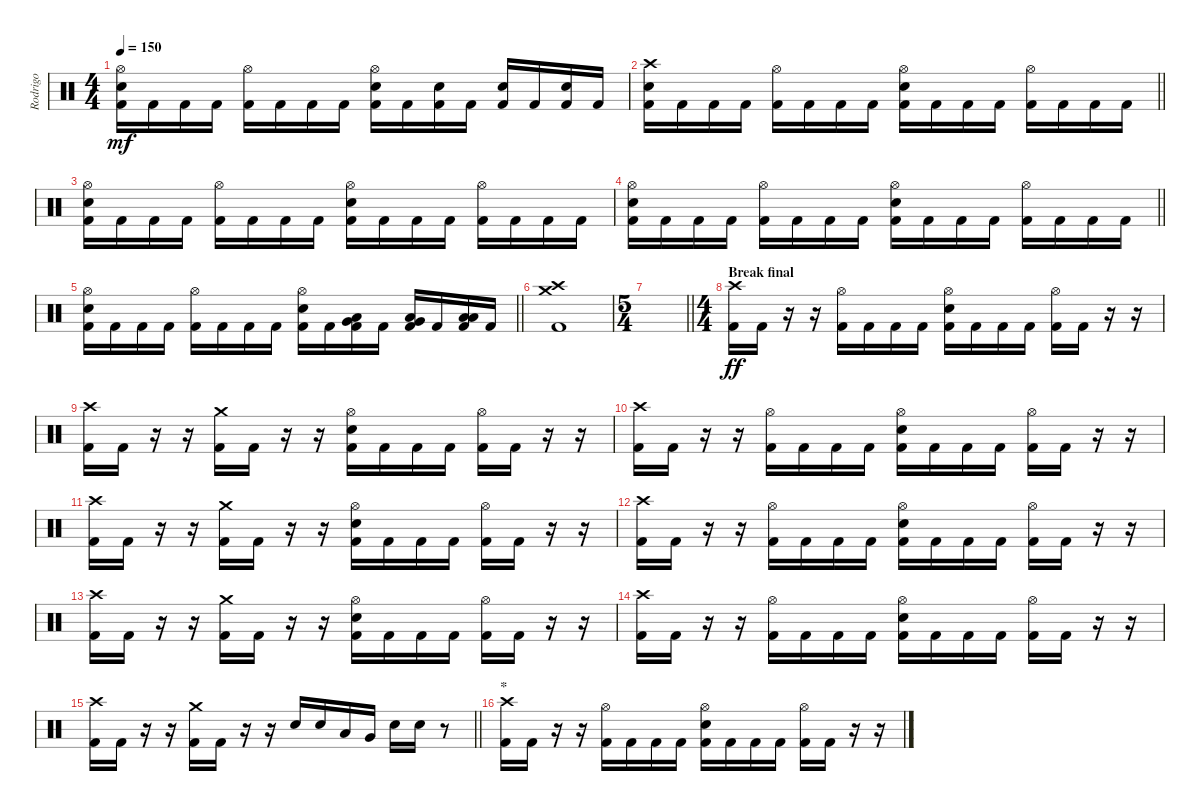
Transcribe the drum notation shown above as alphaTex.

\track ("Rodrigo" "Rodrigo") {instrument percussion}
\staff {score}
\articulation defaults
\ts (4 4)
\tempo 150
\clef neutral
\ks c
("Hi-Hat (open)" "Electric Snare (hit)" "Kick (hit) 2").16{dy mf} "Kick (hit) 2".16 "Kick (hit) 2".16 "Kick (hit) 2".16 ("Hi-Hat (open)" "Kick (hit) 2").16 "Kick (hit) 2".16 "Kick (hit) 2".16 "Kick (hit) 2".16 ("Hi-Hat (open)" "Electric Snare (hit)" "Kick (hit) 2").16 "Kick (hit) 2".16 ("Electric Snare (hit)" "Kick (hit) 2").16 "Kick (hit) 2".16 ("Electric Snare (hit)" "Kick (hit) 2").16 "Kick (hit) 2".16 ("Electric Snare (hit)" "Kick (hit) 2").16 "Kick (hit) 2".16 |
\barLineRight lightlight
("Crash high (hit)" "Electric Snare (hit)" "Kick (hit) 2").16 "Kick (hit) 2".16 "Kick (hit) 2".16 "Kick (hit) 2".16 ("Hi-Hat (open)" "Kick (hit) 2").16 "Kick (hit) 2".16 "Kick (hit) 2".16 "Kick (hit) 2".16 ("Hi-Hat (open)" "Electric Snare (hit)" "Kick (hit) 2").16 "Kick (hit) 2".16 "Kick (hit) 2".16 "Kick (hit) 2".16 ("Hi-Hat (open)" "Kick (hit) 2").16 "Kick (hit) 2".16 "Kick (hit) 2".16 "Kick (hit) 2".16 |
("Hi-Hat (open)" "Electric Snare (hit)" "Kick (hit) 2").16 "Kick (hit) 2".16 "Kick (hit) 2".16 "Kick (hit) 2".16 ("Hi-Hat (open)" "Kick (hit) 2").16 "Kick (hit) 2".16 "Kick (hit) 2".16 "Kick (hit) 2".16 ("Hi-Hat (open)" "Electric Snare (hit)" "Kick (hit) 2").16 "Kick (hit) 2".16 "Kick (hit) 2".16 "Kick (hit) 2".16 ("Hi-Hat (open)" "Kick (hit) 2").16 "Kick (hit) 2".16 "Kick (hit) 2".16 "Kick (hit) 2".16 |
\barLineRight lightlight
("Hi-Hat (open)" "Electric Snare (hit)" "Kick (hit) 2").16 "Kick (hit) 2".16 "Kick (hit) 2".16 "Kick (hit) 2".16 ("Hi-Hat (open)" "Kick (hit) 2").16 "Kick (hit) 2".16 "Kick (hit) 2".16 "Kick (hit) 2".16 ("Hi-Hat (open)" "Electric Snare (hit)" "Kick (hit) 2").16 "Kick (hit) 2".16 "Kick (hit) 2".16 "Kick (hit) 2".16 ("Hi-Hat (open)" "Kick (hit) 2").16 "Kick (hit) 2".16 "Kick (hit) 2".16 "Kick (hit) 2".16 |
\barLineRight lightlight
("Hi-Hat (open)" "Electric Snare (hit)" "Kick (hit) 2").16 "Kick (hit) 2".16 "Kick (hit) 2".16 "Kick (hit) 2".16 ("Hi-Hat (open)" "Kick (hit) 2").16 "Kick (hit) 2".16 "Kick (hit) 2".16 "Kick (hit) 2".16 ("Hi-Hat (open)" "Electric Snare (hit)" "Kick (hit) 2").16 "Kick (hit) 2".16 ("Low Tom (hit)" "Very Low Tom (hit)" "Kick (hit) 2").16 "Kick (hit) 2".16 ("Very Low Tom (hit)" "Low Floor Tom (hit)" "Kick (hit) 2").16 "Kick (hit) 2".16 ("Low Floor Tom (hit)" "Low Floor Tom (hit)" "Kick (hit) 2").16 "Kick (hit) 2".16 |
("Crash high (hit)" "Crash medium (hit)" "Kick (hit) 2").1 |
\ts (5 4)
\barLineRight lightlight
|
\ts (4 4)
\section ("" "Break final")
("Crash high (hit)" "Kick (hit) 2").16{dy ff} "Kick (hit) 2".16 r.16 r.16 ("Hi-Hat (open)" "Kick (hit) 2").16 "Kick (hit) 2".16 "Kick (hit) 2".16 "Kick (hit) 2".16 ("Hi-Hat (open)" "Electric Snare (hit)" "Kick (hit) 2").16 "Kick (hit) 2".16 "Kick (hit) 2".16 "Kick (hit) 2".16 ("Hi-Hat (open)" "Kick (hit) 2").16 "Kick (hit) 2".16 r.16 r.16 |
("Crash high (hit)" "Kick (hit) 2").16 "Kick (hit) 2".16 r.16 r.16 ("Crash medium (hit)" "Kick (hit) 2").16 "Kick (hit) 2".16 r.16 r.16 ("Hi-Hat (open)" "Electric Snare (hit)" "Kick (hit) 2").16 "Kick (hit) 2".16 "Kick (hit) 2".16 "Kick (hit) 2".16 ("Hi-Hat (open)" "Kick (hit) 2").16 "Kick (hit) 2".16 r.16 r.16 |
("Crash high (hit)" "Kick (hit) 2").16 "Kick (hit) 2".16 r.16 r.16 ("Hi-Hat (open)" "Kick (hit) 2").16 "Kick (hit) 2".16 "Kick (hit) 2".16 "Kick (hit) 2".16 ("Hi-Hat (open)" "Electric Snare (hit)" "Kick (hit) 2").16 "Kick (hit) 2".16 "Kick (hit) 2".16 "Kick (hit) 2".16 ("Hi-Hat (open)" "Kick (hit) 2").16 "Kick (hit) 2".16 r.16 r.16 |
("Crash high (hit)" "Kick (hit) 2").16 "Kick (hit) 2".16 r.16 r.16 ("Crash medium (hit)" "Kick (hit) 2").16 "Kick (hit) 2".16 r.16 r.16 ("Hi-Hat (open)" "Electric Snare (hit)" "Kick (hit) 2").16 "Kick (hit) 2".16 "Kick (hit) 2".16 "Kick (hit) 2".16 ("Hi-Hat (open)" "Kick (hit) 2").16 "Kick (hit) 2".16 r.16 r.16 |
("Crash high (hit)" "Kick (hit) 2").16 "Kick (hit) 2".16 r.16 r.16 ("Hi-Hat (open)" "Kick (hit) 2").16 "Kick (hit) 2".16 "Kick (hit) 2".16 "Kick (hit) 2".16 ("Hi-Hat (open)" "Electric Snare (hit)" "Kick (hit) 2").16 "Kick (hit) 2".16 "Kick (hit) 2".16 "Kick (hit) 2".16 ("Hi-Hat (open)" "Kick (hit) 2").16 "Kick (hit) 2".16 r.16 r.16 |
("Crash high (hit)" "Kick (hit) 2").16 "Kick (hit) 2".16 r.16 r.16 ("Crash medium (hit)" "Kick (hit) 2").16 "Kick (hit) 2".16 r.16 r.16 ("Hi-Hat (open)" "Electric Snare (hit)" "Kick (hit) 2").16 "Kick (hit) 2".16 "Kick (hit) 2".16 "Kick (hit) 2".16 ("Hi-Hat (open)" "Kick (hit) 2").16 "Kick (hit) 2".16 r.16 r.16 |
("Crash high (hit)" "Kick (hit) 2").16 "Kick (hit) 2".16 r.16 r.16 ("Hi-Hat (open)" "Kick (hit) 2").16 "Kick (hit) 2".16 "Kick (hit) 2".16 "Kick (hit) 2".16 ("Hi-Hat (open)" "Electric Snare (hit)" "Kick (hit) 2").16 "Kick (hit) 2".16 "Kick (hit) 2".16 "Kick (hit) 2".16 ("Hi-Hat (open)" "Kick (hit) 2").16 "Kick (hit) 2".16 r.16 r.16 |
\barLineRight lightlight
("Crash high (hit)" "Kick (hit) 2").16 "Kick (hit) 2".16 r.16 r.16 ("Crash medium (hit)" "Kick (hit) 2").16 "Kick (hit) 2".16 r.16 r.16 "Electric Snare (hit)".16 "Electric Snare (hit)".16 "Low Tom (hit)".16 "Very Low Tom (hit)".16 "Electric Snare (hit)".16 "Electric Snare (hit)".16 r.8 |
\section ("" "*")
("Crash high (hit)" "Kick (hit) 2").16 "Kick (hit) 2".16 r.16 r.16 ("Hi-Hat (open)" "Kick (hit) 2").16 "Kick (hit) 2".16 "Kick (hit) 2".16 "Kick (hit) 2".16 ("Hi-Hat (open)" "Electric Snare (hit)" "Kick (hit) 2").16 "Kick (hit) 2".16 "Kick (hit) 2".16 "Kick (hit) 2".16 ("Hi-Hat (open)" "Kick (hit) 2").16 "Kick (hit) 2".16 r.16 r.16
